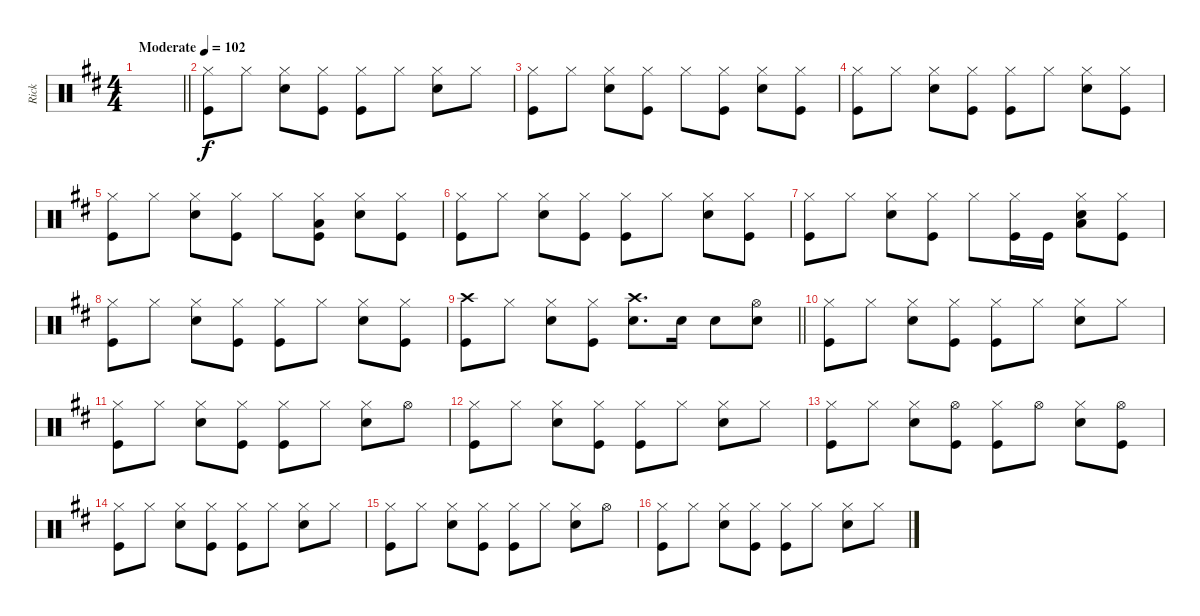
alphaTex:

\track ("Rick" "Rick") {instrument percussion}
\staff {score}
\articulation defaults
\ts (4 4)
\tempo (102 "Moderate")
\clef neutral
\barLineRight lightlight
\ks d
|
("Hi-Hat (closed)" "Kick (hit)").8 "Hi-Hat (closed)".8 ("Hi-Hat (closed)" "Snare (hit) 2").8 ("Hi-Hat (closed)" "Kick (hit)").8 ("Hi-Hat (closed)" "Kick (hit)").8 "Hi-Hat (closed)".8 ("Hi-Hat (closed)" "Snare (hit) 2").8 "Hi-Hat (closed)".8 |
("Hi-Hat (closed)" "Kick (hit)").8 "Hi-Hat (closed)".8 ("Hi-Hat (closed)" "Snare (hit) 2").8 ("Hi-Hat (closed)" "Kick (hit)").8 "Hi-Hat (closed)".8 ("Hi-Hat (closed)" "Kick (hit)").8 ("Hi-Hat (closed)" "Snare (hit) 2").8 ("Hi-Hat (closed)" "Kick (hit)").8 |
("Hi-Hat (closed)" "Kick (hit)").8 "Hi-Hat (closed)".8 ("Hi-Hat (closed)" "Snare (hit) 2").8 ("Hi-Hat (closed)" "Kick (hit)").8 ("Hi-Hat (closed)" "Kick (hit)").8 "Hi-Hat (closed)".8 ("Hi-Hat (closed)" "Snare (hit) 2").8 ("Hi-Hat (closed)" "Kick (hit)").8 |
("Hi-Hat (closed)" "Kick (hit)").8 "Hi-Hat (closed)".8 ("Hi-Hat (closed)" "Snare (hit) 2").8 ("Hi-Hat (closed)" "Kick (hit)").8 "Hi-Hat (closed)".8 ("Hi-Hat (closed)" "Low Tom (hit)" "Kick (hit)").8 ("Hi-Hat (closed)" "Snare (hit) 2").8 ("Hi-Hat (closed)" "Kick (hit)").8 |
("Hi-Hat (closed)" "Kick (hit)").8 "Hi-Hat (closed)".8 ("Hi-Hat (closed)" "Snare (hit) 2").8 ("Hi-Hat (closed)" "Kick (hit)").8 ("Hi-Hat (closed)" "Kick (hit)").8 "Hi-Hat (closed)".8 ("Hi-Hat (closed)" "Snare (hit) 2").8 ("Hi-Hat (closed)" "Kick (hit)").8 |
("Hi-Hat (closed)" "Kick (hit)").8 "Hi-Hat (closed)".8 ("Hi-Hat (closed)" "Snare (hit) 2").8 ("Hi-Hat (closed)" "Kick (hit)").8 "Hi-Hat (closed)".8 ("Hi-Hat (closed)" "Kick (hit)").16 "Kick (hit)".16 ("Hi-Hat (closed)" "Snare (hit) 2" "Low Tom (hit)").8 ("Hi-Hat (closed)" "Kick (hit)").8 |
("Hi-Hat (closed)" "Kick (hit)").8 "Hi-Hat (closed)".8 ("Hi-Hat (closed)" "Snare (hit) 2").8 ("Hi-Hat (closed)" "Kick (hit)").8 ("Hi-Hat (closed)" "Kick (hit)").8 "Hi-Hat (closed)".8 ("Hi-Hat (closed)" "Snare (hit) 2").8 ("Hi-Hat (closed)" "Kick (hit)").8 |
\barLineRight lightlight
("Crash high (hit)" "Kick (hit)").8 "Hi-Hat (closed)".8 ("Hi-Hat (closed)" "Snare (hit) 2").8 ("Hi-Hat (closed)" "Kick (hit)").8 ("Crash high (hit)" "Snare (hit) 2").8{d} "Snare (hit) 2".16 "Snare (hit) 2".8 ("Hi-Hat (open)" "Snare (hit) 2").8 |
("Hi-Hat (closed)" "Kick (hit)").8 "Hi-Hat (closed)".8 ("Hi-Hat (closed)" "Snare (hit) 2").8 ("Hi-Hat (closed)" "Kick (hit)").8 ("Hi-Hat (closed)" "Kick (hit)").8 "Hi-Hat (closed)".8 ("Hi-Hat (closed)" "Snare (hit) 2").8 "Hi-Hat (closed)".8 |
("Hi-Hat (closed)" "Kick (hit)").8 "Hi-Hat (closed)".8 ("Hi-Hat (closed)" "Snare (hit) 2").8 ("Hi-Hat (closed)" "Kick (hit)").8 ("Hi-Hat (closed)" "Kick (hit)").8 "Hi-Hat (closed)".8 ("Hi-Hat (closed)" "Snare (hit) 2").8 "Hi-Hat (open)".8 |
("Hi-Hat (closed)" "Kick (hit)").8 "Hi-Hat (closed)".8 ("Hi-Hat (closed)" "Snare (hit) 2").8 ("Hi-Hat (closed)" "Kick (hit)").8 ("Hi-Hat (closed)" "Kick (hit)").8 "Hi-Hat (closed)".8 ("Hi-Hat (closed)" "Snare (hit) 2").8 "Hi-Hat (closed)".8 |
("Hi-Hat (closed)" "Kick (hit)").8 "Hi-Hat (closed)".8 ("Hi-Hat (closed)" "Snare (hit) 2").8 ("Hi-Hat (open)" "Kick (hit)").8 ("Hi-Hat (closed)" "Kick (hit)").8 "Hi-Hat (open)".8 ("Hi-Hat (closed)" "Snare (hit) 2").8 ("Hi-Hat (open)" "Kick (hit)").8 |
("Hi-Hat (closed)" "Kick (hit)").8 "Hi-Hat (closed)".8 ("Hi-Hat (closed)" "Snare (hit) 2").8 ("Hi-Hat (closed)" "Kick (hit)").8 ("Hi-Hat (closed)" "Kick (hit)").8 "Hi-Hat (closed)".8 ("Hi-Hat (closed)" "Snare (hit) 2").8 "Hi-Hat (closed)".8 |
("Hi-Hat (closed)" "Kick (hit)").8 "Hi-Hat (closed)".8 ("Hi-Hat (closed)" "Snare (hit) 2").8 ("Hi-Hat (closed)" "Kick (hit)").8 ("Hi-Hat (closed)" "Kick (hit)").8 "Hi-Hat (closed)".8 ("Hi-Hat (closed)" "Snare (hit) 2").8 "Hi-Hat (open)".8 |
("Hi-Hat (closed)" "Kick (hit)").8 "Hi-Hat (closed)".8 ("Hi-Hat (closed)" "Snare (hit) 2").8 ("Hi-Hat (closed)" "Kick (hit)").8 ("Hi-Hat (closed)" "Kick (hit)").8 "Hi-Hat (closed)".8 ("Hi-Hat (closed)" "Snare (hit) 2").8 "Hi-Hat (closed)".8
